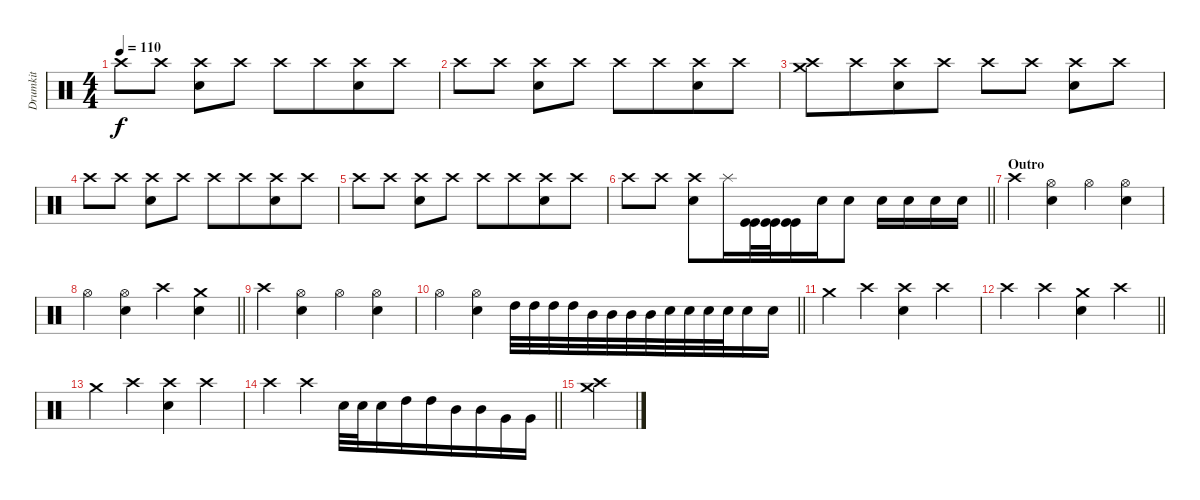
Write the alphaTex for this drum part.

\track ("Drumkit" "Drumkit") {instrument percussion}
\staff {score}
\articulation defaults
\ts (4 4)
\tempo 110
\clef neutral
\ks c "Crash high (hit)".8{dy f} "Crash high (hit)".8
("Crash high (hit)" "Electric Snare (hit)").8{beam merge} "Crash high (hit)".8 "Crash high (hit)".8{beam merge} "Crash high (hit)".8{beam merge} ("Crash high (hit)" "Electric Snare (hit)").8 "Crash high (hit)".8 |
"Crash high (hit)".8 "Crash high (hit)".8 ("Crash high (hit)" "Electric Snare (hit)").8{beam merge} "Crash high (hit)".8 "Crash high (hit)".8{beam merge} "Crash high (hit)".8{beam merge} ("Crash high (hit)" "Electric Snare (hit)").8 "Crash high (hit)".8 |
("Crash medium (hit)" "Crash high (hit)").8 "Crash high (hit)".8{beam merge} ("Crash high (hit)" "Electric Snare (hit)").8 "Crash high (hit)".8 "Crash high (hit)".8 "Crash high (hit)".8 ("Crash high (hit)" "Electric Snare (hit)").8 "Crash high (hit)".8 |
"Crash high (hit)".8 "Crash high (hit)".8 ("Crash high (hit)" "Electric Snare (hit)").8{beam merge} "Crash high (hit)".8 "Crash high (hit)".8{beam merge} "Crash high (hit)".8{beam merge} ("Crash high (hit)" "Electric Snare (hit)").8 "Crash high (hit)".8 |
"Crash high (hit)".8 "Crash high (hit)".8 ("Crash high (hit)" "Electric Snare (hit)").8{beam merge} "Crash high (hit)".8 "Crash high (hit)".8{beam merge} "Crash high (hit)".8{beam merge} ("Crash high (hit)" "Electric Snare (hit)").8 "Crash high (hit)".8 |
\barLineRight lightlight "Crash high (hit)".8 "Crash high (hit)".8
("Crash high (hit)" "Electric Snare (hit)").8 "Splash (hit)".16{beam merge} ("Kick (hit)" "Kick (hit)").32{beam merge} ("Kick (hit)" "Kick (hit)").32{beam merge} ("Kick (hit)" "Kick (hit)").16 "Electric Snare (hit)".16{beam merge} "Electric Snare (hit)".8 "Electric Snare (hit)".16 "Electric Snare (hit)".16{beam merge} "Electric Snare (hit)".16 "Electric Snare (hit)".16 |
\section ("" "Outro")
"Crash high (hit)".4{beam merge} ("Hi-Hat (open)" "Electric Snare (hit)").4 "Hi-Hat (open)".4 ("Hi-Hat (open)" "Electric Snare (hit)").4 |
\barLineRight lightlight "Hi-Hat (open)".4{beam merge}
("Hi-Hat (open)" "Electric Snare (hit)").4 "Crash high (hit)".4 ("Crash medium (hit)" "Electric Snare (hit)").4 |
"Crash high (hit)".4{beam merge} ("Hi-Hat (open)" "Electric Snare (hit)").4 "Hi-Hat (open)".4{beam merge} ("Hi-Hat (open)" "Electric Snare (hit)").4 |
\barLineRight lightlight "Hi-Hat (open)".4{beam merge}
("Hi-Hat (open)" "Electric Snare (hit)").4 "High Tom (hit)".32 "High Tom (hit)".32{beam merge} "High Tom (hit)".32 "High Tom (hit)".32{beam merge} "Mid Tom (hit)".32 "Mid Tom (hit)".32 "Mid Tom (hit)".32 "Mid Tom (hit)".32{beam merge} "Electric Snare (hit)".32 "Electric Snare (hit)".32{beam merge} "Electric Snare (hit)".32 "Electric Snare (hit)".32 "Electric Snare (hit)".16 "Electric Snare (hit)".16 |
"Crash medium (hit)".4{beam merge} "Crash high (hit)".4 ("Crash high (hit)" "Electric Snare (hit)").4 "Crash high (hit)".4 |
\barLineRight lightlight "Crash high (hit)".4{beam merge} "Crash high (hit)".4
("Crash medium (hit)" "Electric Snare (hit)").4 "Crash high (hit)".4 |
"Crash medium (hit)".4{beam merge} "Crash high (hit)".4 ("Crash high (hit)" "Electric Snare (hit)").4{beam merge} "Crash high (hit)".4 |
\barLineRight lightlight "Crash high (hit)".4{beam merge} "Crash high (hit)".4 "Electric Snare (hit)".32 "Electric Snare (hit)".32{beam merge} "Electric Snare (hit)".16 "High Tom (hit)".16 "High Tom (hit)".16{beam merge} "Mid Tom (hit)".16{beam merge} "Mid Tom (hit)".16 "Very Low Tom (hit)".16 "Very Low Tom (hit)".16
|
("Crash medium (hit)" "Crash high (hit)").4
